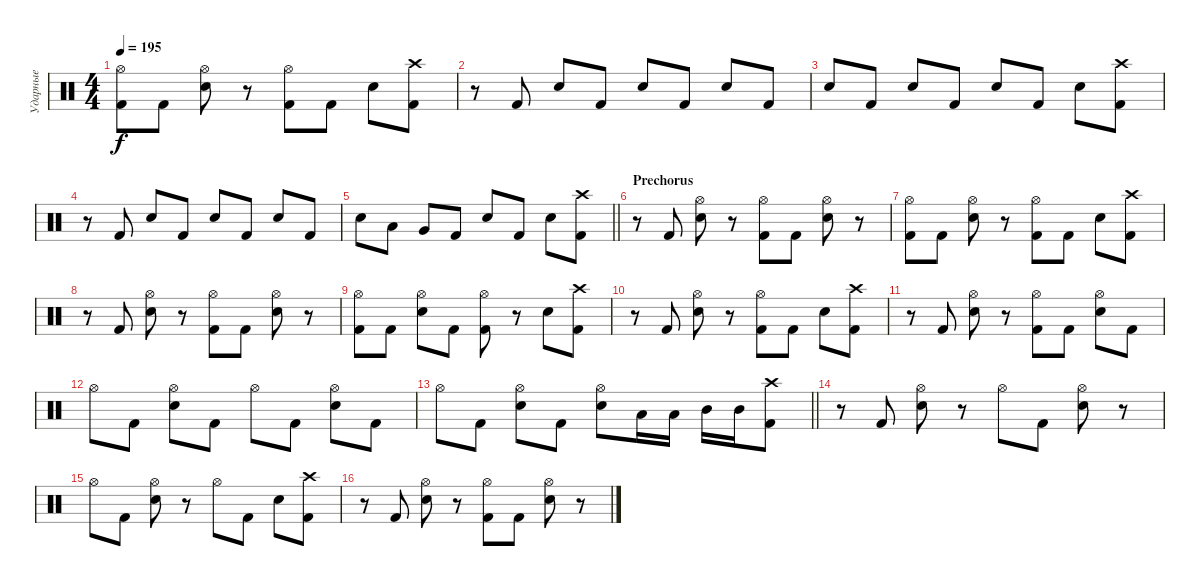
\track ("Ударные" "Ударные") {instrument percussion}
\staff {score}
\articulation defaults
\ts (4 4)
\tempo 195
\clef neutral
\ks c
("Hi-Hat (open)" "Kick (hit) 2").8{dy f} "Kick (hit) 2".8 ("Hi-Hat (open)" "Electric Snare (hit)").8 r.8 ("Hi-Hat (open)" "Kick (hit) 2").8 "Kick (hit) 2".8 "Electric Snare (hit)".8 ("Crash high (hit)" "Kick (hit) 2").8 |
r.8 "Kick (hit) 2".8 "Snare (hit) 2".8 "Kick (hit) 2".8 "Snare (hit) 2".8 "Kick (hit) 2".8 "Snare (hit) 2".8 "Kick (hit) 2".8 |
"Snare (hit) 2".8 "Kick (hit) 2".8 "Snare (hit) 2".8 "Kick (hit) 2".8 "Snare (hit) 2".8 "Kick (hit) 2".8 "Electric Snare (hit)".8 ("Crash high (hit)" "Kick (hit) 2").8 |
r.8 "Kick (hit) 2".8 "Snare (hit) 2".8 "Kick (hit) 2".8 "Snare (hit) 2".8 "Kick (hit) 2".8 "Snare (hit) 2".8 "Kick (hit) 2".8 |
\barLineRight lightlight "Electric Snare (hit)".8 "Low Tom (hit)".8 "Very Low Tom (hit)".8 "Kick (hit) 2".8 "Snare (hit) 2".8 "Kick (hit) 2".8 "Electric Snare (hit)".8
("Crash high (hit)" "Kick (hit) 2").8 |
\section ("" "Prechorus")
r.8 "Kick (hit) 2".8 ("Hi-Hat (open)" "Electric Snare (hit)").8 r.8 ("Hi-Hat (open)" "Kick (hit) 2").8 "Kick (hit) 2".8 ("Hi-Hat (open)" "Electric Snare (hit)").8 r.8 |
("Hi-Hat (open)" "Kick (hit) 2").8 "Kick (hit) 2".8 ("Hi-Hat (open)" "Electric Snare (hit)").8 r.8 ("Hi-Hat (open)" "Kick (hit) 2").8 "Kick (hit) 2".8 "Electric Snare (hit)".8 ("Crash high (hit)" "Kick (hit) 2").8 |
r.8 "Kick (hit) 2".8 ("Hi-Hat (open)" "Electric Snare (hit)").8 r.8 ("Hi-Hat (open)" "Kick (hit) 2").8 "Kick (hit) 2".8 ("Hi-Hat (open)" "Electric Snare (hit)").8 r.8 |
("Hi-Hat (open)" "Kick (hit) 2").8 "Kick (hit) 2".8 ("Hi-Hat (open)" "Electric Snare (hit)").8 "Kick (hit) 2".8 ("Hi-Hat (open)" "Kick (hit) 2").8 r.8 "Electric Snare (hit)".8 ("Crash high (hit)" "Kick (hit) 2").8 |
r.8 "Kick (hit) 2".8 ("Hi-Hat (open)" "Electric Snare (hit)").8 r.8 ("Hi-Hat (open)" "Kick (hit) 2").8 "Kick (hit) 2".8 "Electric Snare (hit)".8 ("Crash high (hit)" "Kick (hit) 2").8 |
r.8 "Kick (hit) 2".8 ("Hi-Hat (open)" "Electric Snare (hit)").8 r.8 ("Hi-Hat (open)" "Kick (hit) 2").8 "Kick (hit) 2".8 ("Hi-Hat (open)" "Electric Snare (hit)").8 "Kick (hit) 2".8 |
"Hi-Hat (open)".8 "Kick (hit) 2".8 ("Hi-Hat (open)" "Electric Snare (hit)").8 "Kick (hit) 2".8 "Hi-Hat (open)".8 "Kick (hit) 2".8 ("Hi-Hat (open)" "Electric Snare (hit)").8 "Kick (hit) 2".8 |
\barLineRight lightlight "Hi-Hat (open)".8 "Kick (hit) 2".8
("Hi-Hat (open)" "Electric Snare (hit)").8 "Kick (hit) 2".8 ("Hi-Hat (open)" "Electric Snare (hit)").8 "Low Tom (hit)".16 "Low Tom (hit)".16 "Mid Tom (hit)".16 "Mid Tom (hit)".16 ("Crash high (hit)" "Kick (hit) 2").8 |
r.8 "Kick (hit) 2".8 ("Hi-Hat (open)" "Electric Snare (hit)").8 r.8 "Hi-Hat (open)".8 "Kick (hit) 2".8 ("Hi-Hat (open)" "Electric Snare (hit)").8 r.8 |
"Hi-Hat (open)".8 "Kick (hit) 2".8 ("Hi-Hat (open)" "Electric Snare (hit)").8 r.8 "Hi-Hat (open)".8 "Kick (hit) 2".8 "Electric Snare (hit)".8 ("Crash high (hit)" "Kick (hit) 2").8 |
r.8 "Kick (hit) 2".8 ("Hi-Hat (open)" "Electric Snare (hit)").8 r.8 ("Hi-Hat (open)" "Kick (hit) 2").8 "Kick (hit) 2".8 ("Hi-Hat (open)" "Electric Snare (hit)").8 r.8
